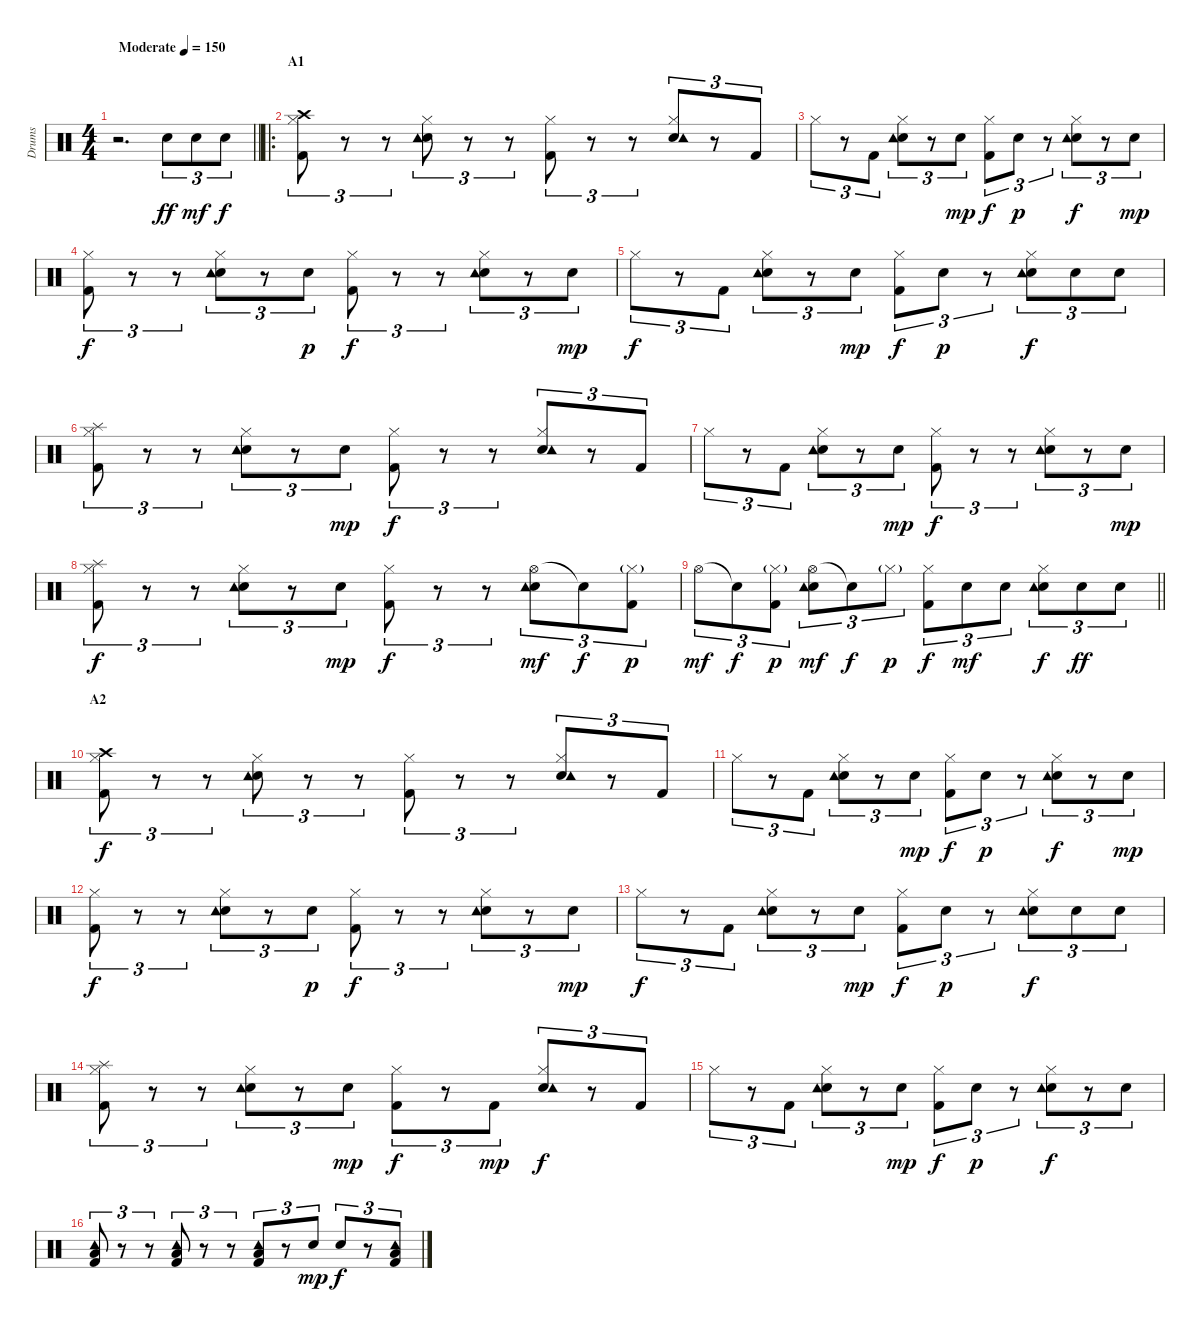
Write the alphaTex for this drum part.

\track ("Drums" "Drums") {instrument percussion}
\staff {score}
\articulation defaults
\ts (4 4)
\tempo (150 "Moderate")
\clef neutral
\barLineRight lightlight
\ks c
r.2{d dy ff} "Electric Snare (hit)".8{tu (3 2)} "Electric Snare (hit)".8{tu (3 2) dy mf} "Electric Snare (hit)".8{tu (3 2) dy f} |
\ro
\section ("" "A1")
("Crash high (hit)" "Hi-Hat (closed)" "Kick (hit) 2").8{tu (3 2)} r.8{tu (3 2)} r.8{tu (3 2)} ("Hi-Hat (closed)" "Electric Snare (hit)" "Tambourine (hit)").8{tu (3 2)} r.8{tu (3 2)} r.8{tu (3 2)} ("Hi-Hat (closed)" "Kick (hit) 2").8{tu (3 2)} r.8{tu (3 2)} r.8{tu (3 2)} ("Hi-Hat (closed)" "Electric Snare (hit)" "Tambourine (hit)").8{tu (3 2)} r.8{tu (3 2)} "Kick (hit) 2".8{tu (3 2)} |
"Hi-Hat (closed)".8{tu (3 2)} r.8{tu (3 2)} "Kick (hit) 2".8{tu (3 2)} ("Hi-Hat (closed)" "Electric Snare (hit)" "Tambourine (hit)").8{tu (3 2)} r.8{tu (3 2)} "Electric Snare (hit)".8{tu (3 2) dy mp} ("Hi-Hat (closed)" "Kick (hit) 2").8{tu (3 2) dy f} "Electric Snare (hit)".8{tu (3 2) dy p} r.8{tu (3 2)} ("Hi-Hat (closed)" "Electric Snare (hit)" "Tambourine (hit)").8{tu (3 2) dy f} r.8{tu (3 2)} "Electric Snare (hit)".8{tu (3 2) dy mp} |
("Hi-Hat (closed)" "Kick (hit) 2").8{tu (3 2) dy f} r.8{tu (3 2)} r.8{tu (3 2)} ("Hi-Hat (closed)" "Electric Snare (hit)" "Tambourine (hit)").8{tu (3 2)} r.8{tu (3 2)} "Electric Snare (hit)".8{tu (3 2) dy p} ("Hi-Hat (closed)" "Kick (hit) 2").8{tu (3 2) dy f} r.8{tu (3 2)} r.8{tu (3 2)} ("Hi-Hat (closed)" "Electric Snare (hit)" "Tambourine (hit)").8{tu (3 2)} r.8{tu (3 2)} "Electric Snare (hit)".8{tu (3 2) dy mp} |
"Hi-Hat (closed)".8{tu (3 2) dy f} r.8{tu (3 2)} "Kick (hit) 2".8{tu (3 2)} ("Hi-Hat (closed)" "Electric Snare (hit)" "Tambourine (hit)").8{tu (3 2)} r.8{tu (3 2)} "Electric Snare (hit)".8{tu (3 2) dy mp} ("Hi-Hat (closed)" "Kick (hit) 2").8{tu (3 2) dy f} "Electric Snare (hit)".8{tu (3 2) dy p} r.8{tu (3 2)} ("Hi-Hat (closed)" "Electric Snare (hit)" "Tambourine (hit)").8{tu (3 2) dy f} "Electric Snare (hit)".8{tu (3 2)} "Electric Snare (hit)".8{tu (3 2)} |
("Splash (hit)" "Hi-Hat (closed)" "Kick (hit) 2").8{tu (3 2)} r.8{tu (3 2)} r.8{tu (3 2)} ("Hi-Hat (closed)" "Electric Snare (hit)" "Tambourine (hit)").8{tu (3 2)} r.8{tu (3 2)} "Electric Snare (hit)".8{tu (3 2) dy mp} ("Hi-Hat (closed)" "Kick (hit) 2").8{tu (3 2) dy f} r.8{tu (3 2)} r.8{tu (3 2)} ("Hi-Hat (closed)" "Electric Snare (hit)" "Tambourine (hit)").8{tu (3 2)} r.8{tu (3 2)} "Kick (hit) 2".8{tu (3 2)} |
"Hi-Hat (closed)".8{tu (3 2)} r.8{tu (3 2)} "Kick (hit) 2".8{tu (3 2)} ("Hi-Hat (closed)" "Electric Snare (hit)" "Tambourine (hit)").8{tu (3 2)} r.8{tu (3 2)} "Electric Snare (hit)".8{tu (3 2) dy mp} ("Hi-Hat (closed)" "Kick (hit) 2").8{tu (3 2) dy f} r.8{tu (3 2)} r.8{tu (3 2)} ("Hi-Hat (closed)" "Electric Snare (hit)" "Tambourine (hit)").8{tu (3 2)} r.8{tu (3 2)} "Electric Snare (hit)".8{tu (3 2) dy mp} |
("Splash (hit)" "Hi-Hat (closed)" "Kick (hit) 2").8{tu (3 2) dy f} r.8{tu (3 2)} r.8{tu (3 2)} ("Hi-Hat (closed)" "Electric Snare (hit)" "Tambourine (hit)").8{tu (3 2)} r.8{tu (3 2)} "Electric Snare (hit)".8{tu (3 2) dy mp} ("Hi-Hat (closed)" "Kick (hit) 2").8{tu (3 2) dy f} r.8{tu (3 2)} r.8{tu (3 2)} ("Hi-Hat (open)" "Electric Snare (hit)" "Tambourine (hit)").8{tu (3 2) dy mf} "Snare (hit)"{t}.8{tu (3 2) dy f} ("Hi-Hat (closed)"{g} "Kick (hit) 2").8{tu (3 2) dy p} |
\barLineRight lightlight "Hi-Hat (open)".8{tu (3 2) dy mf} "Snare (hit)"{t}.8{tu (3 2) dy f}
("Hi-Hat (closed)"{g} "Kick (hit) 2").8{tu (3 2) dy p} ("Hi-Hat (open)" "Electric Snare (hit)" "Tambourine (hit)").8{tu (3 2) dy mf} "Snare (hit)"{t}.8{tu (3 2) dy f} "Hi-Hat (closed)"{g}.8{tu (3 2) dy p} ("Hi-Hat (closed)" "Kick (hit) 2").8{tu (3 2) dy f} "Electric Snare (hit)".8{tu (3 2) dy mf} "Electric Snare (hit)".8{tu (3 2)} ("Hi-Hat (closed)" "Electric Snare (hit)" "Tambourine (hit)").8{tu (3 2) dy f} "Electric Snare (hit)".8{tu (3 2) dy ff} "Electric Snare (hit)".8{tu (3 2)} |
\section ("" "A2")
("Crash high (hit)" "Hi-Hat (closed)" "Kick (hit) 2").8{tu (3 2) dy f} r.8{tu (3 2)} r.8{tu (3 2)} ("Hi-Hat (closed)" "Electric Snare (hit)" "Tambourine (hit)").8{tu (3 2)} r.8{tu (3 2)} r.8{tu (3 2)} ("Hi-Hat (closed)" "Kick (hit) 2").8{tu (3 2)} r.8{tu (3 2)} r.8{tu (3 2)} ("Hi-Hat (closed)" "Electric Snare (hit)" "Tambourine (hit)").8{tu (3 2)} r.8{tu (3 2)} "Kick (hit) 2".8{tu (3 2)} |
"Hi-Hat (closed)".8{tu (3 2)} r.8{tu (3 2)} "Kick (hit) 2".8{tu (3 2)} ("Hi-Hat (closed)" "Electric Snare (hit)" "Tambourine (hit)").8{tu (3 2)} r.8{tu (3 2)} "Electric Snare (hit)".8{tu (3 2) dy mp} ("Hi-Hat (closed)" "Kick (hit) 2").8{tu (3 2) dy f} "Electric Snare (hit)".8{tu (3 2) dy p} r.8{tu (3 2)} ("Hi-Hat (closed)" "Electric Snare (hit)" "Tambourine (hit)").8{tu (3 2) dy f} r.8{tu (3 2)} "Electric Snare (hit)".8{tu (3 2) dy mp} |
("Hi-Hat (closed)" "Kick (hit) 2").8{tu (3 2) dy f} r.8{tu (3 2)} r.8{tu (3 2)} ("Hi-Hat (closed)" "Electric Snare (hit)" "Tambourine (hit)").8{tu (3 2)} r.8{tu (3 2)} "Electric Snare (hit)".8{tu (3 2) dy p} ("Hi-Hat (closed)" "Kick (hit) 2").8{tu (3 2) dy f} r.8{tu (3 2)} r.8{tu (3 2)} ("Hi-Hat (closed)" "Electric Snare (hit)" "Tambourine (hit)").8{tu (3 2)} r.8{tu (3 2)} "Electric Snare (hit)".8{tu (3 2) dy mp} |
"Hi-Hat (closed)".8{tu (3 2) dy f} r.8{tu (3 2)} "Kick (hit) 2".8{tu (3 2)} ("Hi-Hat (closed)" "Electric Snare (hit)" "Tambourine (hit)").8{tu (3 2)} r.8{tu (3 2)} "Electric Snare (hit)".8{tu (3 2) dy mp} ("Hi-Hat (closed)" "Kick (hit) 2").8{tu (3 2) dy f} "Electric Snare (hit)".8{tu (3 2) dy p} r.8{tu (3 2)} ("Hi-Hat (closed)" "Electric Snare (hit)" "Tambourine (hit)").8{tu (3 2) dy f} "Electric Snare (hit)".8{tu (3 2)} "Electric Snare (hit)".8{tu (3 2)} |
("Splash (hit)" "Hi-Hat (closed)" "Kick (hit) 2").8{tu (3 2)} r.8{tu (3 2)} r.8{tu (3 2)} ("Hi-Hat (closed)" "Electric Snare (hit)" "Tambourine (hit)").8{tu (3 2)} r.8{tu (3 2)} "Electric Snare (hit)".8{tu (3 2) dy mp} ("Hi-Hat (closed)" "Kick (hit) 2").8{tu (3 2) dy f} r.8{tu (3 2)} "Kick (hit) 2".8{tu (3 2) dy mp} ("Hi-Hat (closed)" "Electric Snare (hit)" "Tambourine (hit)").8{tu (3 2) dy f} r.8{tu (3 2)} "Kick (hit) 2".8{tu (3 2)} |
"Hi-Hat (closed)".8{tu (3 2)} r.8{tu (3 2)} "Kick (hit) 2".8{tu (3 2)} ("Hi-Hat (closed)" "Electric Snare (hit)" "Tambourine (hit)").8{tu (3 2)} r.8{tu (3 2)} "Electric Snare (hit)".8{tu (3 2) dy mp} ("Hi-Hat (closed)" "Kick (hit) 2").8{tu (3 2) dy f} "Electric Snare (hit)".8{tu (3 2) dy p} r.8{tu (3 2)} ("Hi-Hat (closed)" "Electric Snare (hit)" "Tambourine (hit)").8{tu (3 2) dy f} r.8{tu (3 2)} "Electric Snare (hit)".8{tu (3 2)} |
("Low Tom (hit)" "Kick (hit) 2" "Tambourine (hit)").8{tu (3 2)} r.8{tu (3 2)} r.8{tu (3 2)} ("Low Tom (hit)" "Kick (hit) 2" "Tambourine (hit)").8{tu (3 2)} r.8{tu (3 2)} r.8{tu (3 2)} ("Low Tom (hit)" "Kick (hit) 2" "Tambourine (hit)").8{tu (3 2)} r.8{tu (3 2)} "Electric Snare (hit)".8{tu (3 2) dy mp} "Electric Snare (hit)".8{tu (3 2) dy f} r.8{tu (3 2)} ("Low Tom (hit)" "Kick (hit) 2" "Tambourine (hit)").8{tu (3 2)}
